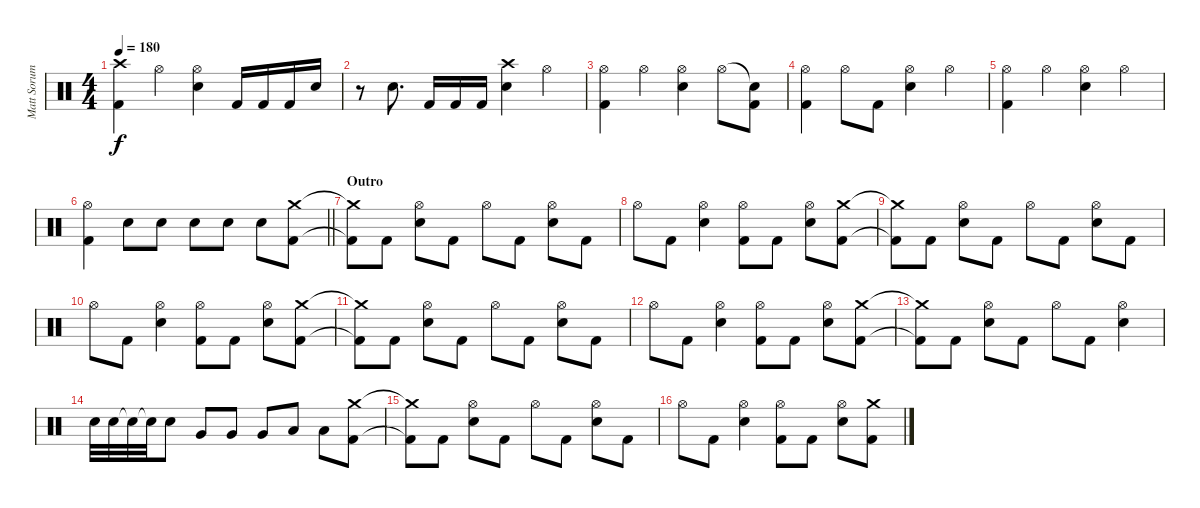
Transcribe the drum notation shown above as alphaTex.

\track ("Matt Sorum" "Matt Sorum") {instrument percussion}
\staff {score}
\articulation defaults
\ts (4 4)
\tempo 180
\clef neutral
\ks c
("Crash high (hit)" "Kick (hit) 2").4{dy f} "Hi-Hat (open)".4 ("Hi-Hat (open)" "Electric Snare (hit)").4 "Kick (hit) 2".16 "Kick (hit) 2".16 "Kick (hit) 2".16 "Electric Snare (hit)".16 |
r.8 "Electric Snare (hit)".8{d} "Kick (hit) 2".16 "Kick (hit) 2".16 "Kick (hit) 2".16 ("Crash high (hit)" "Electric Snare (hit)").4 "Hi-Hat (open)".4 |
("Hi-Hat (open)" "Kick (hit) 2").4 "Hi-Hat (open)".4 ("Hi-Hat (open)" "Electric Snare (hit)").4 "Hi-Hat (open)".8 ("Snare (hit)"{t} "Kick (hit) 2").8 |
("Hi-Hat (open)" "Kick (hit) 2").4 "Hi-Hat (open)".8 "Kick (hit) 2".8 ("Hi-Hat (open)" "Electric Snare (hit)").4 "Hi-Hat (open)".4 |
("Hi-Hat (open)" "Kick (hit) 2").4 "Hi-Hat (open)".4 ("Hi-Hat (open)" "Electric Snare (hit)").4 "Hi-Hat (open)".4 |
\barLineRight lightlight
("Hi-Hat (open)" "Kick (hit) 2").4 "Electric Snare (hit)".8 "Electric Snare (hit)".8 "Electric Snare (hit)".8 "Electric Snare (hit)".8 "Electric Snare (hit)".8 ("Crash medium (hit)" "Kick (hit) 2").8 |
\section ("" "Outro")
("Crash medium (hit)"{t} "Kick (hit) 2"{t}).8 "Kick (hit) 2".8 ("Hi-Hat (open)" "Electric Snare (hit)").8 "Kick (hit) 2".8 "Hi-Hat (open)".8 "Kick (hit) 2".8 ("Hi-Hat (open)" "Electric Snare (hit)").8 "Kick (hit) 2".8 |
"Hi-Hat (open)".8 "Kick (hit) 2".8 ("Hi-Hat (open)" "Electric Snare (hit)").4 ("Hi-Hat (open)" "Kick (hit) 2").8 "Kick (hit) 2".8 ("Hi-Hat (open)" "Electric Snare (hit)").8 ("Crash medium (hit)" "Kick (hit) 2").8 |
("Crash medium (hit)"{t} "Kick (hit) 2"{t}).8 "Kick (hit) 2".8 ("Hi-Hat (open)" "Electric Snare (hit)").8 "Kick (hit) 2".8 "Hi-Hat (open)".8 "Kick (hit) 2".8 ("Hi-Hat (open)" "Electric Snare (hit)").8 "Kick (hit) 2".8 |
"Hi-Hat (open)".8 "Kick (hit) 2".8 ("Hi-Hat (open)" "Electric Snare (hit)").4 ("Hi-Hat (open)" "Kick (hit) 2").8 "Kick (hit) 2".8 ("Hi-Hat (open)" "Electric Snare (hit)").8 ("Crash medium (hit)" "Kick (hit) 2").8 |
("Crash medium (hit)"{t} "Kick (hit) 2"{t}).8 "Kick (hit) 2".8 ("Hi-Hat (open)" "Electric Snare (hit)").8 "Kick (hit) 2".8 "Hi-Hat (open)".8 "Kick (hit) 2".8 ("Hi-Hat (open)" "Electric Snare (hit)").8 "Kick (hit) 2".8 |
"Hi-Hat (open)".8 "Kick (hit) 2".8 ("Hi-Hat (open)" "Electric Snare (hit)").4 ("Hi-Hat (open)" "Kick (hit) 2").8 "Kick (hit) 2".8 ("Hi-Hat (open)" "Electric Snare (hit)").8 ("Crash medium (hit)" "Kick (hit) 2").8 |
("Crash medium (hit)"{t} "Kick (hit) 2"{t}).8 "Kick (hit) 2".8 ("Hi-Hat (open)" "Electric Snare (hit)").8 "Kick (hit) 2".8 "Hi-Hat (open)".8 "Kick (hit) 2".8 ("Hi-Hat (open)" "Electric Snare (hit)").4 |
"Electric Snare (hit)".32 "Electric Snare (hit)".32 "Snare (hit)"{t}.32 "Snare (hit)"{t}.32 "Electric Snare (hit)".8 "Very Low Tom (hit)".8 "Very Low Tom (hit)".8 "Very Low Tom (hit)".8 "Low Floor Tom (hit)".8 "Low Floor Tom (hit)".8 ("Crash medium (hit)" "Kick (hit) 2").8 |
("Crash medium (hit)"{t} "Kick (hit) 2"{t}).8 "Kick (hit) 2".8 ("Hi-Hat (open)" "Electric Snare (hit)").8 "Kick (hit) 2".8 "Hi-Hat (open)".8 "Kick (hit) 2".8 ("Hi-Hat (open)" "Electric Snare (hit)").8 "Kick (hit) 2".8 |
"Hi-Hat (open)".8 "Kick (hit) 2".8 ("Hi-Hat (open)" "Electric Snare (hit)").4 ("Hi-Hat (open)" "Kick (hit) 2").8 "Kick (hit) 2".8 ("Hi-Hat (open)" "Electric Snare (hit)").8 ("Crash medium (hit)" "Kick (hit) 2").8
